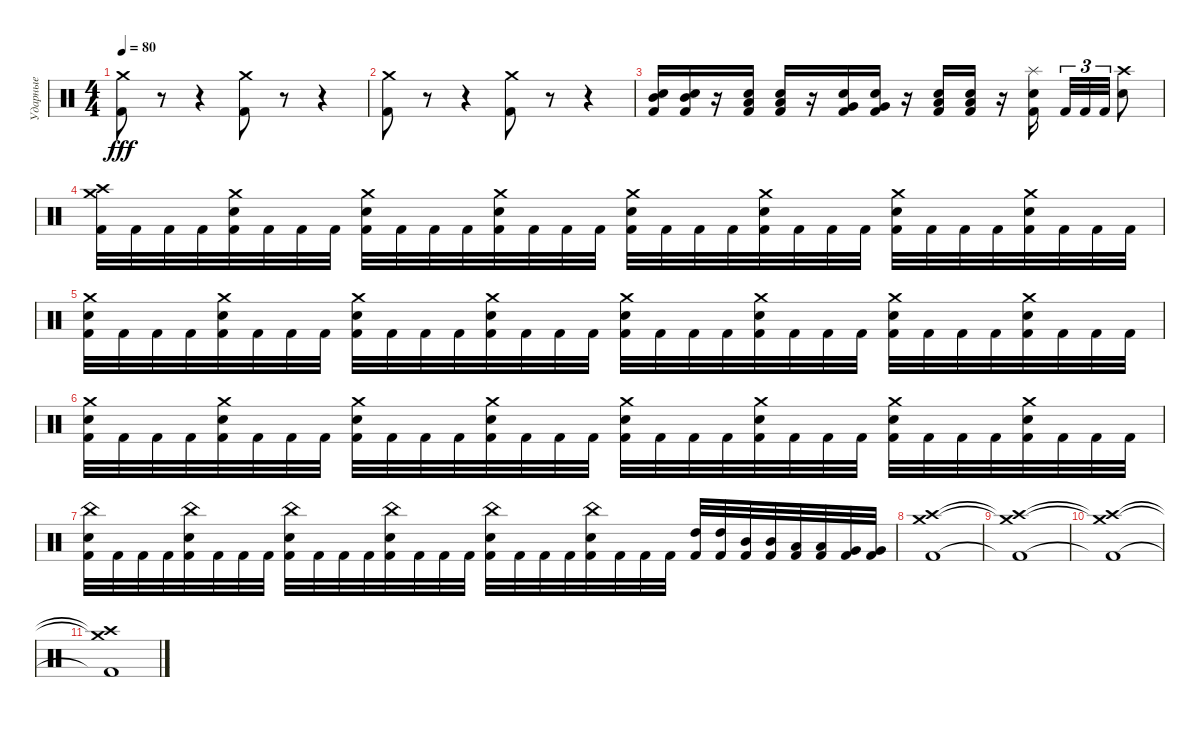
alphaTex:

\track ("Ударные" "Ударные") {instrument percussion}
\staff {score}
\articulation defaults
\ts (4 4)
\tempo 80
\clef neutral
\ks c
("Crash medium (hit)" "Kick (hit) 2").8{dy fff} r.8 r.4 ("Crash medium (hit)" "Kick (hit) 2").8 r.8 r.4 |
("Crash medium (hit)" "Kick (hit) 2").8 r.8 r.4 ("Crash medium (hit)" "Kick (hit) 2").8 r.8 r.4 |
("Mid Tom (hit)" "Electric Snare (hit)" "Kick (hit) 2").16 ("Mid Tom (hit)" "Electric Snare (hit)" "Kick (hit) 2").16 r.16 ("Low Tom (hit)" "Electric Snare (hit)" "Kick (hit) 2").16 ("Low Tom (hit)" "Electric Snare (hit)" "Kick (hit) 2").16 r.16 ("Very Low Tom (hit)" "Electric Snare (hit)" "Kick (hit) 2").16 ("Very Low Tom (hit)" "Electric Snare (hit)" "Kick (hit) 2").16 r.16 ("Low Floor Tom (hit)" "Electric Snare (hit)" "Kick (hit) 2").16 ("Low Floor Tom (hit)" "Electric Snare (hit)" "Kick (hit) 2").16 r.16 ("Splash (hit)" "Electric Snare (hit)" "Kick (hit) 2").16{beam splitsecondary} "Kick (hit) 2".32{tu (3 2)} "Kick (hit) 2".32{tu (3 2)} "Kick (hit) 2".32{tu (3 2)} ("Crash high (hit)" "Electric Snare (hit)").8 |
("Crash medium (hit)" "Crash high (hit)" "Kick (hit) 2").32 "Kick (hit) 2".32 "Kick (hit) 2".32 "Kick (hit) 2".32 ("Crash medium (hit)" "Electric Snare (hit)" "Kick (hit) 2").32 "Kick (hit) 2".32 "Kick (hit) 2".32 "Kick (hit) 2".32 ("Crash medium (hit)" "Electric Snare (hit)" "Kick (hit) 2").32 "Kick (hit) 2".32 "Kick (hit) 2".32 "Kick (hit) 2".32 ("Crash medium (hit)" "Electric Snare (hit)" "Kick (hit) 2").32 "Kick (hit) 2".32 "Kick (hit) 2".32 "Kick (hit) 2".32 ("Crash medium (hit)" "Electric Snare (hit)" "Kick (hit) 2").32 "Kick (hit) 2".32 "Kick (hit) 2".32 "Kick (hit) 2".32 ("Crash medium (hit)" "Electric Snare (hit)" "Kick (hit) 2").32 "Kick (hit) 2".32 "Kick (hit) 2".32 "Kick (hit) 2".32 ("Crash medium (hit)" "Electric Snare (hit)" "Kick (hit) 2").32 "Kick (hit) 2".32 "Kick (hit) 2".32 "Kick (hit) 2".32 ("Crash medium (hit)" "Electric Snare (hit)" "Kick (hit) 2").32 "Kick (hit) 2".32 "Kick (hit) 2".32 "Kick (hit) 2".32 |
("Crash medium (hit)" "Electric Snare (hit)" "Kick (hit) 2").32 "Kick (hit) 2".32 "Kick (hit) 2".32 "Kick (hit) 2".32 ("Crash medium (hit)" "Electric Snare (hit)" "Kick (hit) 2").32 "Kick (hit) 2".32 "Kick (hit) 2".32 "Kick (hit) 2".32 ("Crash medium (hit)" "Electric Snare (hit)" "Kick (hit) 2").32 "Kick (hit) 2".32 "Kick (hit) 2".32 "Kick (hit) 2".32 ("Crash medium (hit)" "Electric Snare (hit)" "Kick (hit) 2").32 "Kick (hit) 2".32 "Kick (hit) 2".32 "Kick (hit) 2".32 ("Crash medium (hit)" "Electric Snare (hit)" "Kick (hit) 2").32 "Kick (hit) 2".32 "Kick (hit) 2".32 "Kick (hit) 2".32 ("Crash medium (hit)" "Electric Snare (hit)" "Kick (hit) 2").32 "Kick (hit) 2".32 "Kick (hit) 2".32 "Kick (hit) 2".32 ("Crash medium (hit)" "Electric Snare (hit)" "Kick (hit) 2").32 "Kick (hit) 2".32 "Kick (hit) 2".32 "Kick (hit) 2".32 ("Crash medium (hit)" "Electric Snare (hit)" "Kick (hit) 2").32 "Kick (hit) 2".32 "Kick (hit) 2".32 "Kick (hit) 2".32 |
("Crash medium (hit)" "Electric Snare (hit)" "Kick (hit) 2").32 "Kick (hit) 2".32 "Kick (hit) 2".32 "Kick (hit) 2".32 ("Crash medium (hit)" "Electric Snare (hit)" "Kick (hit) 2").32 "Kick (hit) 2".32 "Kick (hit) 2".32 "Kick (hit) 2".32 ("Crash medium (hit)" "Electric Snare (hit)" "Kick (hit) 2").32 "Kick (hit) 2".32 "Kick (hit) 2".32 "Kick (hit) 2".32 ("Crash medium (hit)" "Electric Snare (hit)" "Kick (hit) 2").32 "Kick (hit) 2".32 "Kick (hit) 2".32 "Kick (hit) 2".32 ("Crash medium (hit)" "Electric Snare (hit)" "Kick (hit) 2").32 "Kick (hit) 2".32 "Kick (hit) 2".32 "Kick (hit) 2".32 ("Crash medium (hit)" "Electric Snare (hit)" "Kick (hit) 2").32 "Kick (hit) 2".32 "Kick (hit) 2".32 "Kick (hit) 2".32 ("Crash medium (hit)" "Electric Snare (hit)" "Kick (hit) 2").32 "Kick (hit) 2".32 "Kick (hit) 2".32 "Kick (hit) 2".32 ("Crash medium (hit)" "Electric Snare (hit)" "Kick (hit) 2").32 "Kick (hit) 2".32 "Kick (hit) 2".32 "Kick (hit) 2".32 |
("China (hit)" "Electric Snare (hit)" "Kick (hit) 2").32 "Kick (hit) 2".32 "Kick (hit) 2".32 "Kick (hit) 2".32 ("China (hit)" "Electric Snare (hit)" "Kick (hit) 2").32 "Kick (hit) 2".32 "Kick (hit) 2".32 "Kick (hit) 2".32 ("China (hit)" "Electric Snare (hit)" "Kick (hit) 2").32 "Kick (hit) 2".32 "Kick (hit) 2".32 "Kick (hit) 2".32 ("China (hit)" "Electric Snare (hit)" "Kick (hit) 2").32 "Kick (hit) 2".32 "Kick (hit) 2".32 "Kick (hit) 2".32 ("China (hit)" "Electric Snare (hit)" "Kick (hit) 2").32 "Kick (hit) 2".32 "Kick (hit) 2".32 "Kick (hit) 2".32 ("China (hit)" "Electric Snare (hit)" "Kick (hit) 2").32 "Kick (hit) 2".32 "Kick (hit) 2".32 "Kick (hit) 2".32 ("High Tom (hit)" "Kick (hit) 2").32 ("High Tom (hit)" "Kick (hit) 2").32 ("Mid Tom (hit)" "Kick (hit) 2").32 ("Mid Tom (hit)" "Kick (hit) 2").32 ("Low Tom (hit)" "Kick (hit) 2").32 ("Low Tom (hit)" "Kick (hit) 2").32 ("Very Low Tom (hit)" "Kick (hit) 2").32 ("Very Low Tom (hit)" "Kick (hit) 2").32 |
("Crash medium (hit)" "Crash high (hit)" "Kick (hit) 2").1 |
("Crash medium (hit)"{t} "Crash high (hit)"{t} "Kick (hit) 2"{t}).1 |
("Crash medium (hit)"{t} "Crash high (hit)"{t} "Kick (hit) 2"{t}).1 |
("Crash medium (hit)"{t} "Crash high (hit)"{t} "Kick (hit) 2"{t}).1
